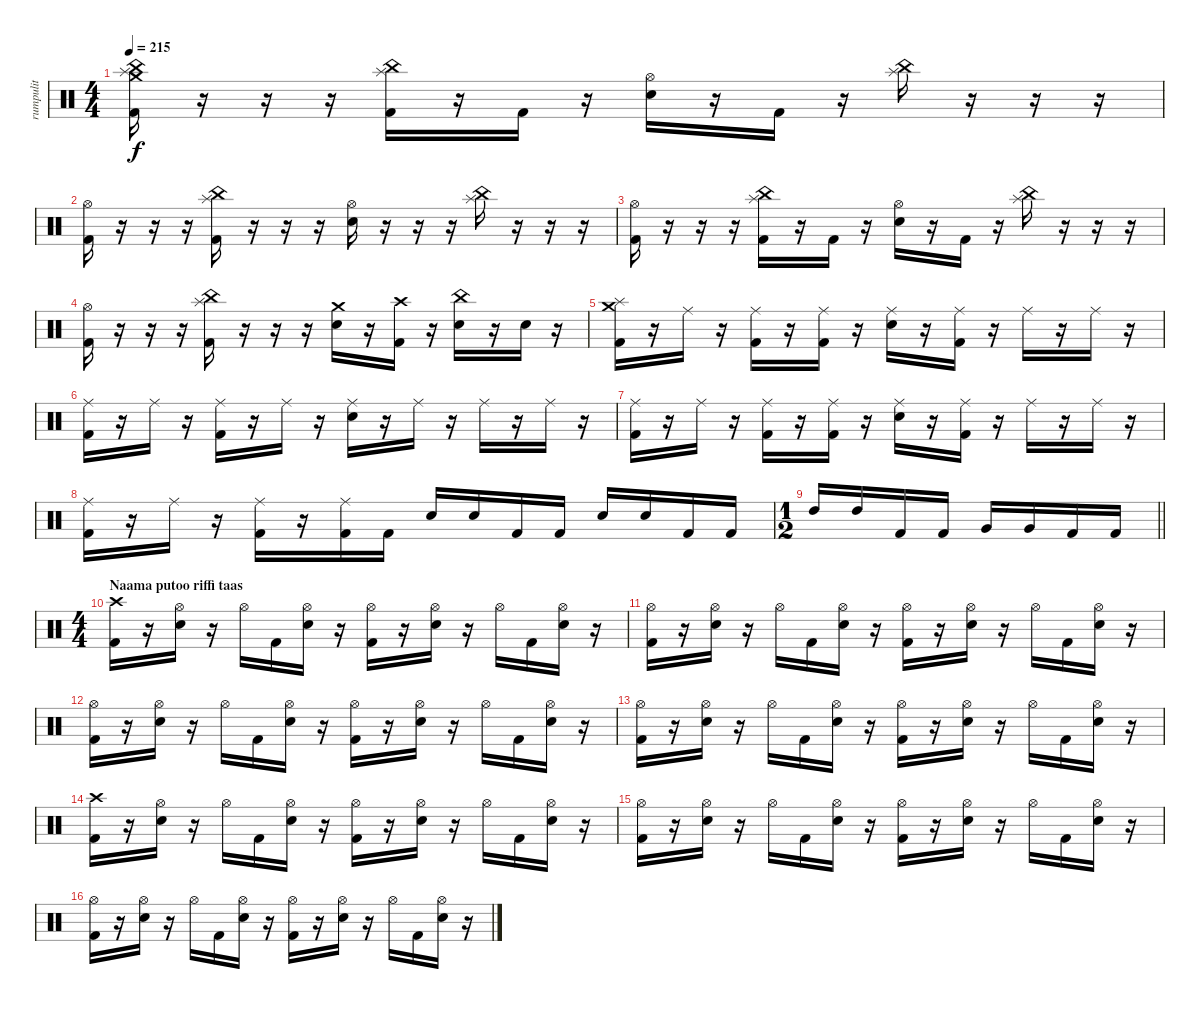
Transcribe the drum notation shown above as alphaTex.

\track ("rumpulit" "rumpulit") {instrument percussion}
\staff {score}
\articulation defaults
\ts (4 4)
\tempo 215
\clef neutral
\ks c
("Crash medium (hit)" "Kick (hit) 2" "China (hit)" "Splash (hit)").16{dy f} r.16 r.16 r.16 ("China (hit)" "Kick (hit) 2" "Splash (hit)").16 r.16 "Kick (hit) 2".16 r.16 ("Hi-Hat (open)" "Electric Snare (hit)").16 r.16 "Kick (hit) 2".16 r.16 ("China (hit)" "Splash (hit)").16 r.16 r.16 r.16 |
("Hi-Hat (open)" "Kick (hit) 2").16 r.16 r.16 r.16 ("Splash (hit)" "Kick (hit) 2" "China (hit)").16 r.16 r.16 r.16 ("Hi-Hat (open)" "Electric Snare (hit)").16 r.16 r.16 r.16 ("Splash (hit)" "China (hit)").16 r.16 r.16 r.16 |
("Hi-Hat (open)" "Kick (hit) 2").16 r.16 r.16 r.16 ("Splash (hit)" "Kick (hit) 2" "China (hit)").16 r.16 "Kick (hit) 2".16 r.16 ("Hi-Hat (open)" "Electric Snare (hit)").16 r.16 "Kick (hit) 2".16 r.16 ("Splash (hit)" "China (hit)").16 r.16 r.16 r.16 |
("Hi-Hat (open)" "Kick (hit) 2").16 r.16 r.16 r.16 ("Splash (hit)" "Kick (hit) 2" "China (hit)").16 r.16 r.16 r.16 ("Crash medium (hit)" "Electric Snare (hit)").16 r.16 ("Crash high (hit)" "Kick (hit) 2").16 r.16 ("Electric Snare (hit)" "China (hit)").16 r.16 "Electric Snare (hit)".16 r.16 |
("Crash medium (hit)" "Kick (hit) 2" "Splash (hit)").16 r.16 "Ride (middle)".16 r.16 ("Ride (middle)" "Kick (hit) 2").16 r.16 ("Ride (middle)" "Kick (hit) 2").16 r.16 ("Ride (middle)" "Electric Snare (hit)").16 r.16 ("Ride (middle)" "Kick (hit) 2").16 r.16 "Ride (middle)".16 r.16 "Ride (middle)".16 r.16 |
("Ride (middle)" "Kick (hit) 2").16 r.16 "Ride (middle)".16 r.16 ("Ride (middle)" "Kick (hit) 2").16 r.16 "Ride (middle)".16 r.16 ("Ride (middle)" "Electric Snare (hit)").16 r.16 "Ride (middle)".16 r.16 "Ride (middle)".16 r.16 "Ride (middle)".16 r.16 |
("Ride (middle)" "Kick (hit) 2").16 r.16 "Ride (middle)".16 r.16 ("Ride (middle)" "Kick (hit) 2").16 r.16 ("Ride (middle)" "Kick (hit) 2").16 r.16 ("Ride (middle)" "Electric Snare (hit)").16 r.16 ("Ride (middle)" "Kick (hit) 2").16 r.16 "Ride (middle)".16 r.16 "Ride (middle)".16 r.16 |
("Ride (middle)" "Kick (hit) 2").16 r.16 "Ride (middle)".16 r.16 ("Ride (middle)" "Kick (hit) 2").16 r.16 ("Ride (middle)" "Kick (hit) 2").16 "Kick (hit) 2".16 "Electric Snare (hit)".16 "Electric Snare (hit)".16 "Kick (hit) 2".16 "Kick (hit) 2".16 "Electric Snare (hit)".16 "Electric Snare (hit)".16 "Kick (hit) 2".16 "Kick (hit) 2".16 |
\ts (1 2)
\barLineRight lightlight "High Tom (hit)".16 "High Tom (hit)".16 "Kick (hit) 2".16 "Kick (hit) 2".16 "Very Low Tom (hit)".16 "Very Low Tom (hit)".16 "Kick (hit) 2".16 "Kick (hit) 2".16
|
\ts (4 4)
\section ("" "Naama putoo riffi taas")
("Crash high (hit)" "Kick (hit) 2").16 r.16 ("Hi-Hat (open)" "Electric Snare (hit)").16 r.16 "Hi-Hat (open)".16 "Kick (hit) 2".16 ("Hi-Hat (open)" "Electric Snare (hit)").16 r.16 ("Hi-Hat (open)" "Kick (hit) 2").16 r.16 ("Hi-Hat (open)" "Electric Snare (hit)").16 r.16 "Hi-Hat (open)".16 "Kick (hit) 2".16 ("Hi-Hat (open)" "Electric Snare (hit)").16 r.16 |
("Hi-Hat (open)" "Kick (hit) 2").16 r.16 ("Hi-Hat (open)" "Electric Snare (hit)").16 r.16 "Hi-Hat (open)".16 "Kick (hit) 2".16 ("Hi-Hat (open)" "Electric Snare (hit)").16 r.16 ("Hi-Hat (open)" "Kick (hit) 2").16 r.16 ("Hi-Hat (open)" "Electric Snare (hit)").16 r.16 "Hi-Hat (open)".16 "Kick (hit) 2".16 ("Hi-Hat (open)" "Electric Snare (hit)").16 r.16 |
("Hi-Hat (open)" "Kick (hit) 2").16 r.16 ("Hi-Hat (open)" "Electric Snare (hit)").16 r.16 "Hi-Hat (open)".16 "Kick (hit) 2".16 ("Hi-Hat (open)" "Electric Snare (hit)").16 r.16 ("Hi-Hat (open)" "Kick (hit) 2").16 r.16 ("Hi-Hat (open)" "Electric Snare (hit)").16 r.16 "Hi-Hat (open)".16 "Kick (hit) 2".16 ("Hi-Hat (open)" "Electric Snare (hit)").16 r.16 |
("Hi-Hat (open)" "Kick (hit) 2").16 r.16 ("Hi-Hat (open)" "Electric Snare (hit)").16 r.16 "Hi-Hat (open)".16 "Kick (hit) 2".16 ("Hi-Hat (open)" "Electric Snare (hit)").16 r.16 ("Hi-Hat (open)" "Kick (hit) 2").16 r.16 ("Hi-Hat (open)" "Electric Snare (hit)").16 r.16 "Hi-Hat (open)".16 "Kick (hit) 2".16 ("Hi-Hat (open)" "Electric Snare (hit)").16 r.16 |
("Crash high (hit)" "Kick (hit) 2").16 r.16 ("Hi-Hat (open)" "Electric Snare (hit)").16 r.16 "Hi-Hat (open)".16 "Kick (hit) 2".16 ("Hi-Hat (open)" "Electric Snare (hit)").16 r.16 ("Hi-Hat (open)" "Kick (hit) 2").16 r.16 ("Hi-Hat (open)" "Electric Snare (hit)").16 r.16 "Hi-Hat (open)".16 "Kick (hit) 2".16 ("Hi-Hat (open)" "Electric Snare (hit)").16 r.16 |
("Hi-Hat (open)" "Kick (hit) 2").16 r.16 ("Hi-Hat (open)" "Electric Snare (hit)").16 r.16 "Hi-Hat (open)".16 "Kick (hit) 2".16 ("Hi-Hat (open)" "Electric Snare (hit)").16 r.16 ("Hi-Hat (open)" "Kick (hit) 2").16 r.16 ("Hi-Hat (open)" "Electric Snare (hit)").16 r.16 "Hi-Hat (open)".16 "Kick (hit) 2".16 ("Hi-Hat (open)" "Electric Snare (hit)").16 r.16 |
("Hi-Hat (open)" "Kick (hit) 2").16 r.16 ("Hi-Hat (open)" "Electric Snare (hit)").16 r.16 "Hi-Hat (open)".16 "Kick (hit) 2".16 ("Hi-Hat (open)" "Electric Snare (hit)").16 r.16 ("Hi-Hat (open)" "Kick (hit) 2").16 r.16 ("Hi-Hat (open)" "Electric Snare (hit)").16 r.16 "Hi-Hat (open)".16 "Kick (hit) 2".16 ("Hi-Hat (open)" "Electric Snare (hit)").16 r.16
